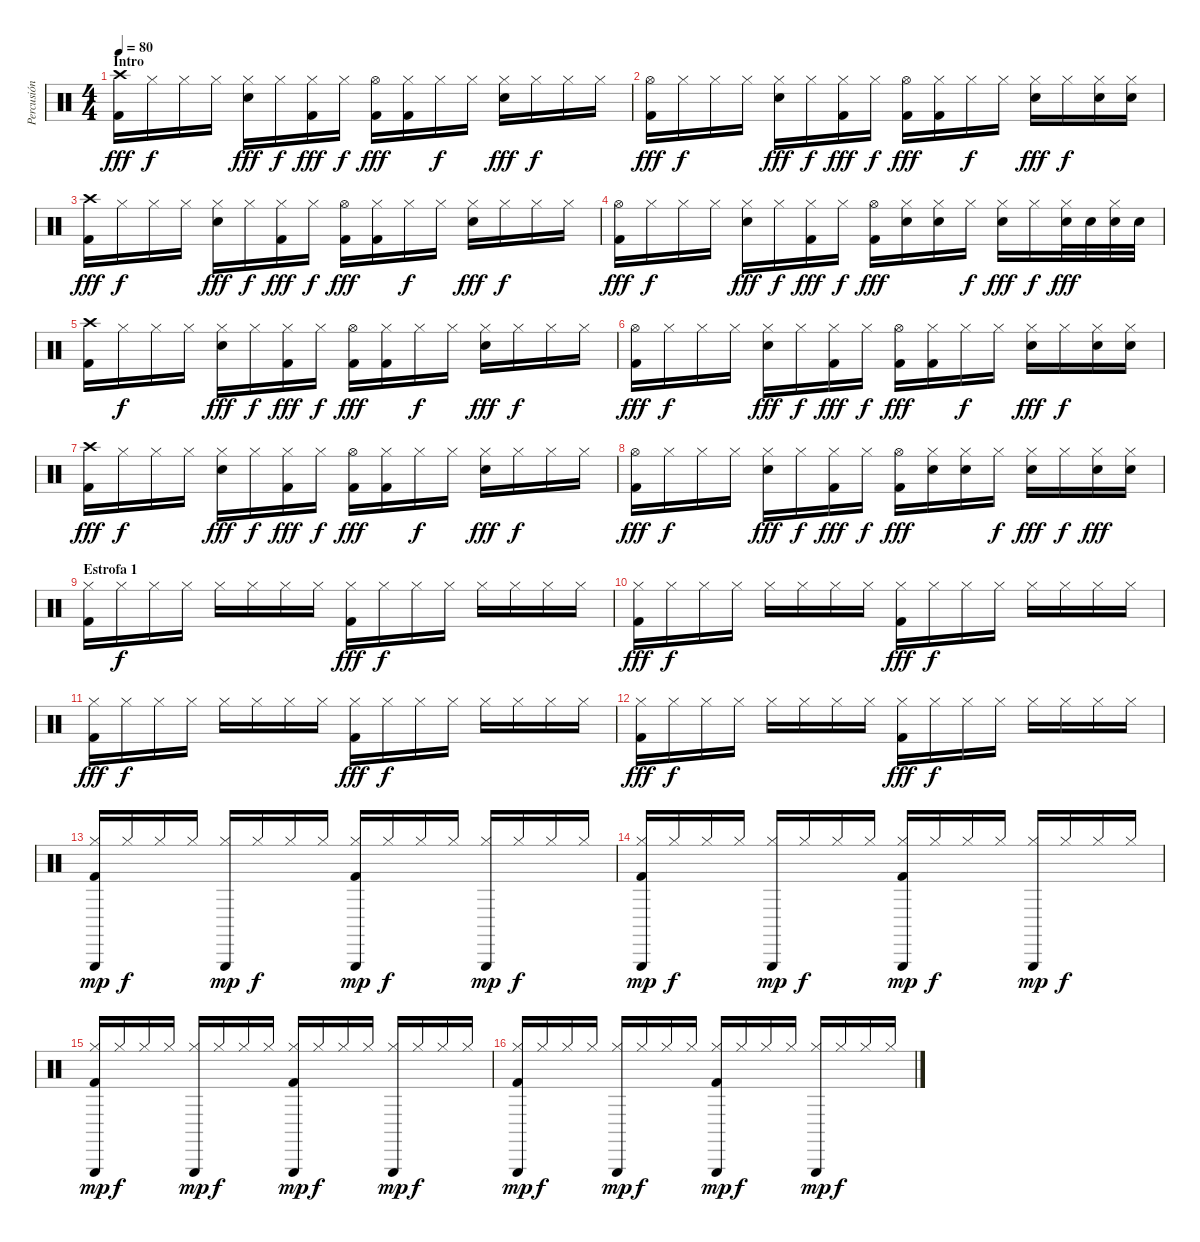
\track ("Percusión" "Percusión") {instrument percussion}
\staff {score}
\articulation defaults
\ts (4 4)
\section ("" "Intro")
\tempo 80
\clef neutral
\ks c
("Crash high (hit)" "Kick (hit) 2").16{dy fff} "Hi-Hat (closed)".16{dy f} "Hi-Hat (closed)".16 "Hi-Hat (closed)".16 ("Hi-Hat (closed)" "Snare (hit) 2").16{dy fff} "Hi-Hat (closed)".16{dy f} ("Hi-Hat (closed)" "Kick (hit) 2").16{dy fff} "Hi-Hat (closed)".16{dy f} ("Hi-Hat (open)" "Kick (hit) 2").16{dy fff} ("Hi-Hat (closed)" "Kick (hit) 2").16 "Hi-Hat (closed)".16{dy f} "Hi-Hat (closed)".16 ("Hi-Hat (closed)" "Snare (hit) 2").16{dy fff} "Hi-Hat (closed)".16{dy f} "Hi-Hat (closed)".16 "Hi-Hat (closed)".16 |
("Hi-Hat (open)" "Kick (hit) 2").16{dy fff} "Hi-Hat (closed)".16{dy f} "Hi-Hat (closed)".16 "Hi-Hat (closed)".16 ("Hi-Hat (closed)" "Snare (hit) 2").16{dy fff} "Hi-Hat (closed)".16{dy f} ("Hi-Hat (closed)" "Kick (hit) 2").16{dy fff} "Hi-Hat (closed)".16{dy f} ("Hi-Hat (open)" "Kick (hit) 2").16{dy fff} ("Hi-Hat (closed)" "Kick (hit) 2").16 "Hi-Hat (closed)".16{dy f} "Hi-Hat (closed)".16 ("Hi-Hat (closed)" "Snare (hit) 2").16{dy fff} "Hi-Hat (closed)".16{dy f} ("Hi-Hat (closed)" "Snare (hit) 2").16 ("Hi-Hat (closed)" "Snare (hit) 2").16 |
("Crash high (hit)" "Kick (hit) 2").16{dy fff} "Hi-Hat (closed)".16{dy f} "Hi-Hat (closed)".16 "Hi-Hat (closed)".16 ("Hi-Hat (closed)" "Snare (hit) 2").16{dy fff} "Hi-Hat (closed)".16{dy f} ("Hi-Hat (closed)" "Kick (hit) 2").16{dy fff} "Hi-Hat (closed)".16{dy f} ("Hi-Hat (open)" "Kick (hit) 2").16{dy fff} ("Hi-Hat (closed)" "Kick (hit) 2").16 "Hi-Hat (closed)".16{dy f} "Hi-Hat (closed)".16 ("Hi-Hat (closed)" "Snare (hit) 2").16{dy fff} "Hi-Hat (closed)".16{dy f} "Hi-Hat (closed)".16 "Hi-Hat (closed)".16 |
("Hi-Hat (open)" "Kick (hit) 2").16{dy fff} "Hi-Hat (closed)".16{dy f} "Hi-Hat (closed)".16 "Hi-Hat (closed)".16 ("Hi-Hat (closed)" "Snare (hit) 2").16{dy fff} "Hi-Hat (closed)".16{dy f} ("Hi-Hat (closed)" "Kick (hit) 2").16{dy fff} "Hi-Hat (closed)".16{dy f} ("Hi-Hat (open)" "Kick (hit) 2").16{dy fff} ("Hi-Hat (closed)" "Snare (hit) 2").16 ("Hi-Hat (closed)" "Snare (hit) 2").16 "Hi-Hat (closed)".16{dy f} ("Hi-Hat (closed)" "Snare (hit) 2").16{dy fff} "Hi-Hat (closed)".16{dy f} ("Hi-Hat (closed)" "Snare (hit) 2").32{dy fff} "Snare (hit) 2".32 ("Hi-Hat (closed)" "Snare (hit) 2").32 "Snare (hit) 2".32 |
("Crash high (hit)" "Kick (hit) 2").16 "Hi-Hat (closed)".16{dy f} "Hi-Hat (closed)".16 "Hi-Hat (closed)".16 ("Hi-Hat (closed)" "Snare (hit) 2").16{dy fff} "Hi-Hat (closed)".16{dy f} ("Hi-Hat (closed)" "Kick (hit) 2").16{dy fff} "Hi-Hat (closed)".16{dy f} ("Hi-Hat (open)" "Kick (hit) 2").16{dy fff} ("Hi-Hat (closed)" "Kick (hit) 2").16 "Hi-Hat (closed)".16{dy f} "Hi-Hat (closed)".16 ("Hi-Hat (closed)" "Snare (hit) 2").16{dy fff} "Hi-Hat (closed)".16{dy f} "Hi-Hat (closed)".16 "Hi-Hat (closed)".16 |
("Hi-Hat (open)" "Kick (hit) 2").16{dy fff} "Hi-Hat (closed)".16{dy f} "Hi-Hat (closed)".16 "Hi-Hat (closed)".16 ("Hi-Hat (closed)" "Snare (hit) 2").16{dy fff} "Hi-Hat (closed)".16{dy f} ("Hi-Hat (closed)" "Kick (hit) 2").16{dy fff} "Hi-Hat (closed)".16{dy f} ("Hi-Hat (open)" "Kick (hit) 2").16{dy fff} ("Hi-Hat (closed)" "Kick (hit) 2").16 "Hi-Hat (closed)".16{dy f} "Hi-Hat (closed)".16 ("Hi-Hat (closed)" "Snare (hit) 2").16{dy fff} "Hi-Hat (closed)".16{dy f} ("Hi-Hat (closed)" "Snare (hit) 2").16 ("Hi-Hat (closed)" "Snare (hit) 2").16 |
("Crash high (hit)" "Kick (hit) 2").16{dy fff} "Hi-Hat (closed)".16{dy f} "Hi-Hat (closed)".16 "Hi-Hat (closed)".16 ("Hi-Hat (closed)" "Snare (hit) 2").16{dy fff} "Hi-Hat (closed)".16{dy f} ("Hi-Hat (closed)" "Kick (hit) 2").16{dy fff} "Hi-Hat (closed)".16{dy f} ("Hi-Hat (open)" "Kick (hit) 2").16{dy fff} ("Hi-Hat (closed)" "Kick (hit) 2").16 "Hi-Hat (closed)".16{dy f} "Hi-Hat (closed)".16 ("Hi-Hat (closed)" "Snare (hit) 2").16{dy fff} "Hi-Hat (closed)".16{dy f} "Hi-Hat (closed)".16 "Hi-Hat (closed)".16 |
("Hi-Hat (open)" "Kick (hit) 2").16{dy fff} "Hi-Hat (closed)".16{dy f} "Hi-Hat (closed)".16 "Hi-Hat (closed)".16 ("Hi-Hat (closed)" "Snare (hit) 2").16{dy fff} "Hi-Hat (closed)".16{dy f} ("Hi-Hat (closed)" "Kick (hit) 2").16{dy fff} "Hi-Hat (closed)".16{dy f} ("Hi-Hat (open)" "Kick (hit) 2").16{dy fff} ("Hi-Hat (closed)" "Snare (hit) 2").16 ("Hi-Hat (closed)" "Snare (hit) 2").16 "Hi-Hat (closed)".16{dy f} ("Hi-Hat (closed)" "Snare (hit) 2").16{dy fff} "Hi-Hat (closed)".16{dy f} ("Hi-Hat (closed)" "Snare (hit) 2").16{dy fff} ("Hi-Hat (closed)" "Snare (hit) 2").16 |
\section ("" "Estrofa 1")
("Hi-Hat (closed)" "Kick (hit) 2").16 "Hi-Hat (closed)".16{dy f} "Hi-Hat (closed)".16 "Hi-Hat (closed)".16 "Hi-Hat (closed)".16 "Hi-Hat (closed)".16 "Hi-Hat (closed)".16 "Hi-Hat (closed)".16 ("Hi-Hat (closed)" "Kick (hit) 2").16{dy fff} "Hi-Hat (closed)".16{dy f} "Hi-Hat (closed)".16 "Hi-Hat (closed)".16 "Hi-Hat (closed)".16 "Hi-Hat (closed)".16 "Hi-Hat (closed)".16 "Hi-Hat (closed)".16 |
("Hi-Hat (closed)" "Kick (hit) 2").16{dy fff} "Hi-Hat (closed)".16{dy f} "Hi-Hat (closed)".16 "Hi-Hat (closed)".16 "Hi-Hat (closed)".16 "Hi-Hat (closed)".16 "Hi-Hat (closed)".16 "Hi-Hat (closed)".16 ("Hi-Hat (closed)" "Kick (hit) 2").16{dy fff} "Hi-Hat (closed)".16{dy f} "Hi-Hat (closed)".16 "Hi-Hat (closed)".16 "Hi-Hat (closed)".16 "Hi-Hat (closed)".16 "Hi-Hat (closed)".16 "Hi-Hat (closed)".16 |
("Hi-Hat (closed)" "Kick (hit) 2").16{dy fff} "Hi-Hat (closed)".16{dy f} "Hi-Hat (closed)".16 "Hi-Hat (closed)".16 "Hi-Hat (closed)".16 "Hi-Hat (closed)".16 "Hi-Hat (closed)".16 "Hi-Hat (closed)".16 ("Hi-Hat (closed)" "Kick (hit) 2").16{dy fff} "Hi-Hat (closed)".16{dy f} "Hi-Hat (closed)".16 "Hi-Hat (closed)".16 "Hi-Hat (closed)".16 "Hi-Hat (closed)".16 "Hi-Hat (closed)".16 "Hi-Hat (closed)".16 |
("Hi-Hat (closed)" "Kick (hit) 2").16{dy fff} "Hi-Hat (closed)".16{dy f} "Hi-Hat (closed)".16 "Hi-Hat (closed)".16 "Hi-Hat (closed)".16 "Hi-Hat (closed)".16 "Hi-Hat (closed)".16 "Hi-Hat (closed)".16 ("Hi-Hat (closed)" "Kick (hit) 2").16{dy fff} "Hi-Hat (closed)".16{dy f} "Hi-Hat (closed)".16 "Hi-Hat (closed)".16 "Hi-Hat (closed)".16 "Hi-Hat (closed)".16 "Hi-Hat (closed)".16 "Hi-Hat (closed)".16 |
("Hi-Hat (closed)" "Kick (hit) 2" "Triangle (hit)").16{dy mp} "Hi-Hat (closed)".16{dy f} "Hi-Hat (closed)".16 "Hi-Hat (closed)".16 ("Hi-Hat (closed)" "Triangle (hit)").16{dy mp} "Hi-Hat (closed)".16{dy f} "Hi-Hat (closed)".16 "Hi-Hat (closed)".16 ("Hi-Hat (closed)" "Kick (hit) 2" "Triangle (hit)").16{dy mp} "Hi-Hat (closed)".16{dy f} "Hi-Hat (closed)".16 "Hi-Hat (closed)".16 ("Hi-Hat (closed)" "Triangle (hit)").16{dy mp} "Hi-Hat (closed)".16{dy f} "Hi-Hat (closed)".16 "Hi-Hat (closed)".16 |
("Hi-Hat (closed)" "Kick (hit) 2" "Triangle (hit)").16{dy mp} "Hi-Hat (closed)".16{dy f} "Hi-Hat (closed)".16 "Hi-Hat (closed)".16 ("Hi-Hat (closed)" "Triangle (hit)").16{dy mp} "Hi-Hat (closed)".16{dy f} "Hi-Hat (closed)".16 "Hi-Hat (closed)".16 ("Hi-Hat (closed)" "Kick (hit) 2" "Triangle (hit)").16{dy mp} "Hi-Hat (closed)".16{dy f} "Hi-Hat (closed)".16 "Hi-Hat (closed)".16 ("Hi-Hat (closed)" "Triangle (hit)").16{dy mp} "Hi-Hat (closed)".16{dy f} "Hi-Hat (closed)".16 "Hi-Hat (closed)".16 |
("Hi-Hat (closed)" "Kick (hit) 2" "Triangle (hit)").16{dy mp} "Hi-Hat (closed)".16{dy f} "Hi-Hat (closed)".16 "Hi-Hat (closed)".16 ("Hi-Hat (closed)" "Triangle (hit)").16{dy mp} "Hi-Hat (closed)".16{dy f} "Hi-Hat (closed)".16 "Hi-Hat (closed)".16 ("Hi-Hat (closed)" "Kick (hit) 2" "Triangle (hit)").16{dy mp} "Hi-Hat (closed)".16{dy f} "Hi-Hat (closed)".16 "Hi-Hat (closed)".16 ("Hi-Hat (closed)" "Triangle (hit)").16{dy mp} "Hi-Hat (closed)".16{dy f} "Hi-Hat (closed)".16 "Hi-Hat (closed)".16 |
("Hi-Hat (closed)" "Kick (hit) 2" "Triangle (hit)").16{dy mp} "Hi-Hat (closed)".16{dy f} "Hi-Hat (closed)".16 "Hi-Hat (closed)".16 ("Hi-Hat (closed)" "Triangle (hit)").16{dy mp} "Hi-Hat (closed)".16{dy f} "Hi-Hat (closed)".16 "Hi-Hat (closed)".16 ("Hi-Hat (closed)" "Kick (hit) 2" "Triangle (hit)").16{dy mp} "Hi-Hat (closed)".16{dy f} "Hi-Hat (closed)".16 "Hi-Hat (closed)".16 ("Hi-Hat (closed)" "Triangle (hit)").16{dy mp} "Hi-Hat (closed)".16{dy f} "Hi-Hat (closed)".16 "Hi-Hat (closed)".16
